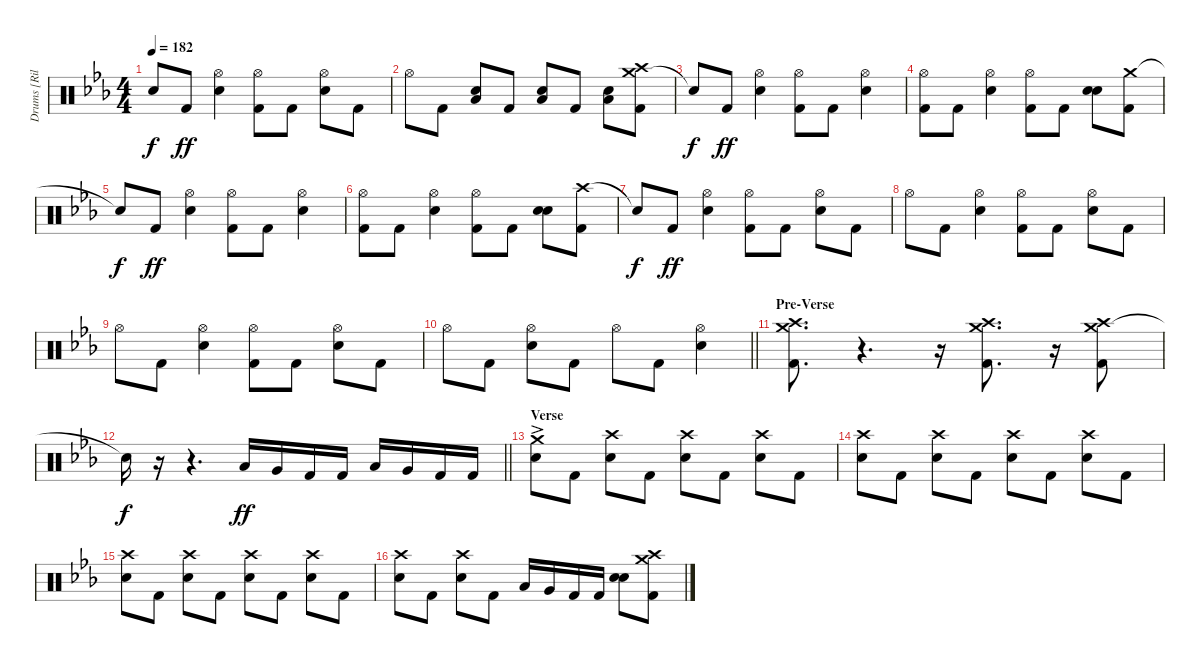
\track ("Drums [Riley]" "Drums [Ril") {instrument percussion}
\staff {score}
\articulation defaults
\ts (4 4)
\tempo 182
\clef neutral
\ks eb "Snare (hit)"{t}.8{dy f} "Kick (hit) 2".8{dy ff}
("Hi-Hat (open)" "Electric Snare (hit)").4 ("Hi-Hat (open)" "Kick (hit) 2").8 "Kick (hit) 2".8 ("Hi-Hat (open)" "Electric Snare (hit)").8 "Kick (hit) 2".8 |
"Hi-Hat (open)".8 "Kick (hit) 2".8 ("Low Tom (hit)" "Electric Snare (hit)").8{bu 60} "Kick (hit) 2".8 ("Low Tom (hit)" "Electric Snare (hit)").8{bu 60} "Kick (hit) 2".8 ("Low Tom (hit)" "Electric Snare (hit)").8{bu 60} ("Crash medium (hit)" "Crash high (hit)" "Kick (hit) 2").8 |
"Snare (hit)"{t}.8{dy f} "Kick (hit) 2".8{dy ff} ("Hi-Hat (open)" "Electric Snare (hit)").4 ("Hi-Hat (open)" "Kick (hit) 2").8 "Kick (hit) 2".8 ("Hi-Hat (open)" "Electric Snare (hit)").4 |
("Hi-Hat (open)" "Kick (hit) 2").8 "Kick (hit) 2".8 ("Hi-Hat (open)" "Electric Snare (hit)").4 ("Hi-Hat (open)" "Kick (hit) 2").8 "Kick (hit) 2".8 ("Electric Snare (hit)" "Electric Snare (hit)").8{bu 60} ("Crash medium (hit)" "Kick (hit) 2").8 |
"Snare (hit)"{t}.8{dy f} "Kick (hit) 2".8{dy ff} ("Hi-Hat (open)" "Electric Snare (hit)").4 ("Hi-Hat (open)" "Kick (hit) 2").8 "Kick (hit) 2".8 ("Hi-Hat (open)" "Electric Snare (hit)").4 |
("Hi-Hat (open)" "Kick (hit) 2").8 "Kick (hit) 2".8 ("Hi-Hat (open)" "Electric Snare (hit)").4 ("Hi-Hat (open)" "Kick (hit) 2").8 "Kick (hit) 2".8 ("Electric Snare (hit)" "Electric Snare (hit)").8{bu 60} ("Crash high (hit)" "Kick (hit) 2").8 |
"Snare (hit)"{t}.8{dy f} "Kick (hit) 2".8{dy ff} ("Hi-Hat (open)" "Electric Snare (hit)").4 ("Hi-Hat (open)" "Kick (hit) 2").8 "Kick (hit) 2".8 ("Hi-Hat (open)" "Electric Snare (hit)").8 "Kick (hit) 2".8 |
"Hi-Hat (open)".8 "Kick (hit) 2".8 ("Hi-Hat (open)" "Electric Snare (hit)").4 ("Hi-Hat (open)" "Kick (hit) 2").8 "Kick (hit) 2".8 ("Hi-Hat (open)" "Electric Snare (hit)").8 "Kick (hit) 2".8 |
"Hi-Hat (open)".8 "Kick (hit) 2".8 ("Hi-Hat (open)" "Electric Snare (hit)").4 ("Hi-Hat (open)" "Kick (hit) 2").8 "Kick (hit) 2".8 ("Hi-Hat (open)" "Electric Snare (hit)").8 "Kick (hit) 2".8 |
\barLineRight lightlight "Hi-Hat (open)".8 "Kick (hit) 2".8
("Hi-Hat (open)" "Electric Snare (hit)").8 "Kick (hit) 2".8 "Hi-Hat (open)".8 "Kick (hit) 2".8 ("Hi-Hat (open)" "Electric Snare (hit)").4 |
\section ("" "Pre-Verse")
("Crash medium (hit)" "Crash high (hit)" "Kick (hit) 2").8{d} r.4{d volume 0} r.16 ("Crash medium (hit)" "Crash high (hit)" "Kick (hit) 2").8{d volume 14} r.16{volume 0} ("Crash medium (hit)" "Crash high (hit)" "Kick (hit) 2").8{volume 14} |
\barLineRight lightlight "Snare (hit)"{t}.16{dy f}
r.16{volume 0} r.4{d} "Low Tom (hit)".16{dy ff volume 14} "Very Low Tom (hit)".16 "Kick (hit) 2".16 "Kick (hit) 2".16 "Low Tom (hit)".16 "Very Low Tom (hit)".16 "Kick (hit) 2".16 "Kick (hit) 2".16 |
\section ("" "Verse")
("Crash medium (hit)"{ac} "Electric Snare (hit)").8 "Kick (hit) 2".8 ("Crash high (hit)" "Electric Snare (hit)").8 "Kick (hit) 2".8 ("Crash high (hit)" "Electric Snare (hit)").8 "Kick (hit) 2".8 ("Crash high (hit)" "Electric Snare (hit)").8 "Kick (hit) 2".8 |
("Crash high (hit)" "Electric Snare (hit)").8 "Kick (hit) 2".8 ("Crash high (hit)" "Electric Snare (hit)").8 "Kick (hit) 2".8 ("Crash high (hit)" "Electric Snare (hit)").8 "Kick (hit) 2".8 ("Crash high (hit)" "Electric Snare (hit)").8 "Kick (hit) 2".8 |
("Crash high (hit)" "Electric Snare (hit)").8 "Kick (hit) 2".8 ("Crash high (hit)" "Electric Snare (hit)").8 "Kick (hit) 2".8 ("Crash high (hit)" "Electric Snare (hit)").8 "Kick (hit) 2".8 ("Crash high (hit)" "Electric Snare (hit)").8 "Kick (hit) 2".8 |
("Crash high (hit)" "Electric Snare (hit)").8 "Kick (hit) 2".8 ("Crash high (hit)" "Electric Snare (hit)").8 "Kick (hit) 2".8 "Low Tom (hit)".16 "Very Low Tom (hit)".16 "Kick (hit) 2".16 "Kick (hit) 2".16 ("Electric Snare (hit)" "Electric Snare (hit)").8{bu 60} ("Crash medium (hit)" "Crash high (hit)" "Kick (hit) 2").8
